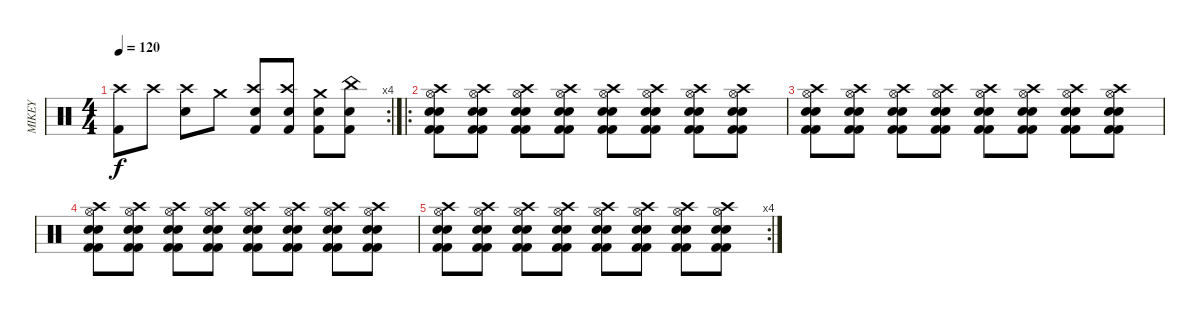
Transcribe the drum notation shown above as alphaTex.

\track ("MIKEY" "MIKEY") {instrument percussion}
\staff {score}
\articulation defaults
\rc 4
\ts (4 4)
\tempo 120
\clef neutral
\ks c
("Kick (hit) 2" "Crash high (hit)").8{dy f} "Crash high (hit)".8 ("Snare (hit) 2" "Crash high (hit)").8 "Crash medium (hit)".8 ("Kick (hit) 2" "Snare (hit) 2" "Crash high (hit)").8 ("Kick (hit) 2" "Snare (hit) 2" "Crash high (hit)").8 ("Kick (hit) 2" "Snare (hit) 2" "Crash medium (hit)").8 ("Kick (hit) 2" "Snare (hit) 2" "China (hit)").8 |
\ro
("Electric Snare (hit)" "Kick (hit) 2" "Snare (hit) 2" "Hi-Hat (open)" "Kick (hit) 2" "Crash high (hit)").8 ("Electric Snare (hit)" "Kick (hit) 2" "Snare (hit) 2" "Hi-Hat (open)" "Kick (hit) 2" "Crash high (hit)").8 ("Electric Snare (hit)" "Kick (hit) 2" "Snare (hit) 2" "Hi-Hat (open)" "Kick (hit) 2" "Crash high (hit)").8 ("Electric Snare (hit)" "Kick (hit) 2" "Snare (hit) 2" "Hi-Hat (open)" "Kick (hit) 2" "Crash high (hit)").8 ("Electric Snare (hit)" "Kick (hit) 2" "Snare (hit) 2" "Hi-Hat (open)" "Kick (hit) 2" "Crash high (hit)").8 ("Electric Snare (hit)" "Kick (hit) 2" "Snare (hit) 2" "Hi-Hat (open)" "Kick (hit) 2" "Crash high (hit)").8 ("Electric Snare (hit)" "Kick (hit) 2" "Snare (hit) 2" "Hi-Hat (open)" "Kick (hit) 2" "Crash high (hit)").8 ("Electric Snare (hit)" "Kick (hit) 2" "Snare (hit) 2" "Hi-Hat (open)" "Kick (hit) 2" "Crash high (hit)").8 |
("Electric Snare (hit)" "Kick (hit) 2" "Snare (hit) 2" "Hi-Hat (open)" "Kick (hit) 2" "Crash high (hit)").8 ("Electric Snare (hit)" "Kick (hit) 2" "Snare (hit) 2" "Hi-Hat (open)" "Kick (hit) 2" "Crash high (hit)").8 ("Electric Snare (hit)" "Kick (hit) 2" "Snare (hit) 2" "Hi-Hat (open)" "Kick (hit) 2" "Crash high (hit)").8 ("Electric Snare (hit)" "Kick (hit) 2" "Snare (hit) 2" "Hi-Hat (open)" "Kick (hit) 2" "Crash high (hit)").8 ("Electric Snare (hit)" "Kick (hit) 2" "Snare (hit) 2" "Hi-Hat (open)" "Kick (hit) 2" "Crash high (hit)").8 ("Electric Snare (hit)" "Kick (hit) 2" "Snare (hit) 2" "Hi-Hat (open)" "Kick (hit) 2" "Crash high (hit)").8 ("Electric Snare (hit)" "Kick (hit) 2" "Snare (hit) 2" "Hi-Hat (open)" "Kick (hit) 2" "Crash high (hit)").8 ("Electric Snare (hit)" "Kick (hit) 2" "Snare (hit) 2" "Hi-Hat (open)" "Kick (hit) 2" "Crash high (hit)").8 |
("Electric Snare (hit)" "Kick (hit) 2" "Snare (hit) 2" "Hi-Hat (open)" "Kick (hit) 2" "Crash high (hit)").8 ("Electric Snare (hit)" "Kick (hit) 2" "Snare (hit) 2" "Hi-Hat (open)" "Kick (hit) 2" "Crash high (hit)").8 ("Electric Snare (hit)" "Kick (hit) 2" "Snare (hit) 2" "Hi-Hat (open)" "Kick (hit) 2" "Crash high (hit)").8 ("Electric Snare (hit)" "Kick (hit) 2" "Snare (hit) 2" "Hi-Hat (open)" "Kick (hit) 2" "Crash high (hit)").8 ("Electric Snare (hit)" "Kick (hit) 2" "Snare (hit) 2" "Hi-Hat (open)" "Kick (hit) 2" "Crash high (hit)").8 ("Electric Snare (hit)" "Kick (hit) 2" "Snare (hit) 2" "Hi-Hat (open)" "Kick (hit) 2" "Crash high (hit)").8 ("Electric Snare (hit)" "Kick (hit) 2" "Snare (hit) 2" "Hi-Hat (open)" "Kick (hit) 2" "Crash high (hit)").8 ("Electric Snare (hit)" "Kick (hit) 2" "Snare (hit) 2" "Hi-Hat (open)" "Kick (hit) 2" "Crash high (hit)").8 |
\rc 4
("Electric Snare (hit)" "Kick (hit) 2" "Snare (hit) 2" "Hi-Hat (open)" "Kick (hit) 2" "Crash high (hit)").8 ("Electric Snare (hit)" "Kick (hit) 2" "Snare (hit) 2" "Hi-Hat (open)" "Kick (hit) 2" "Crash high (hit)").8 ("Electric Snare (hit)" "Kick (hit) 2" "Snare (hit) 2" "Hi-Hat (open)" "Kick (hit) 2" "Crash high (hit)").8 ("Electric Snare (hit)" "Kick (hit) 2" "Snare (hit) 2" "Hi-Hat (open)" "Kick (hit) 2" "Crash high (hit)").8 ("Electric Snare (hit)" "Kick (hit) 2" "Snare (hit) 2" "Hi-Hat (open)" "Kick (hit) 2" "Crash high (hit)").8 ("Electric Snare (hit)" "Kick (hit) 2" "Snare (hit) 2" "Hi-Hat (open)" "Kick (hit) 2" "Crash high (hit)").8 ("Electric Snare (hit)" "Kick (hit) 2" "Snare (hit) 2" "Hi-Hat (open)" "Kick (hit) 2" "Crash high (hit)").8 ("Electric Snare (hit)" "Kick (hit) 2" "Snare (hit) 2" "Hi-Hat (open)" "Kick (hit) 2" "Crash high (hit)").8
